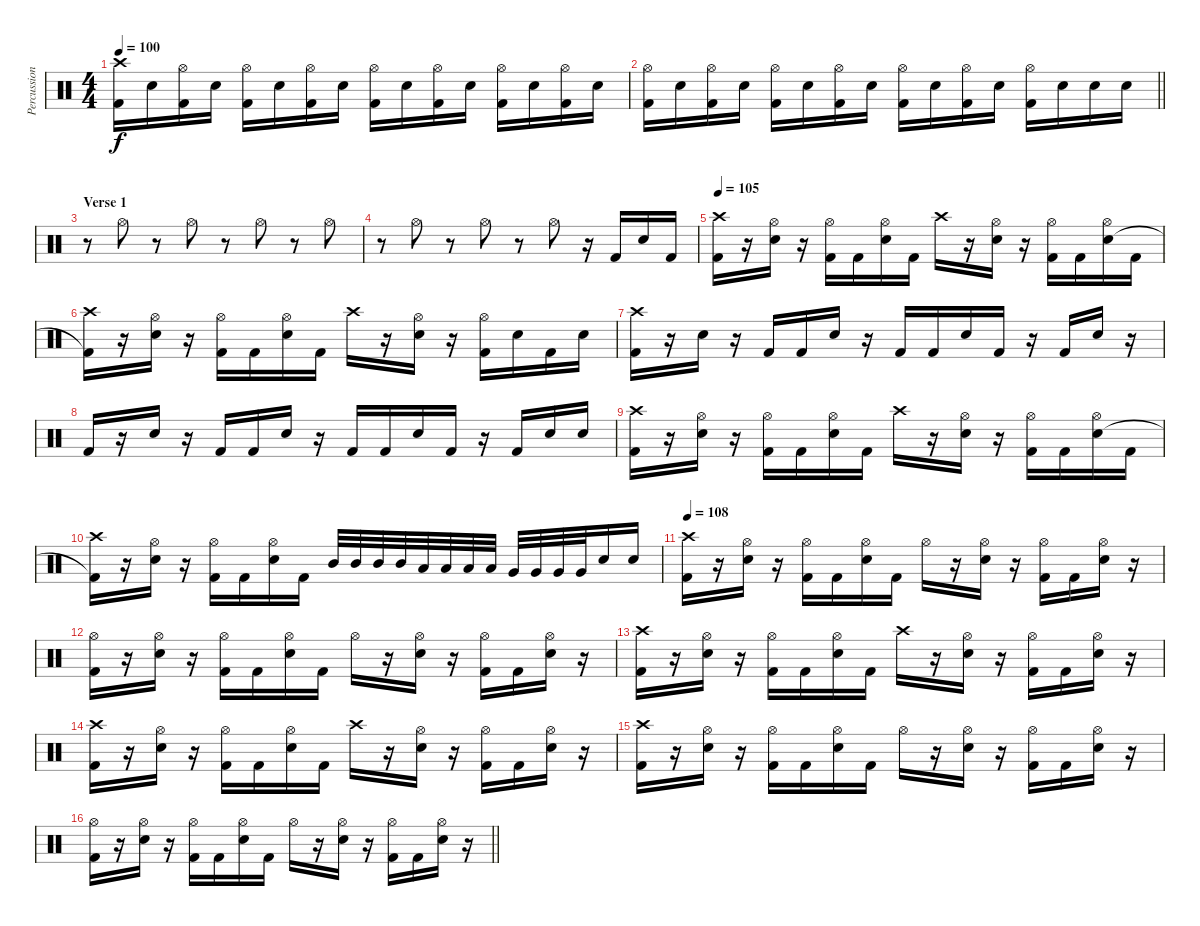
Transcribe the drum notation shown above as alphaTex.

\track ("Percussion" "Percussion") {instrument percussion}
\staff {score}
\articulation defaults
\ts (4 4)
\tempo 100
\clef neutral
\ks c
("Crash high (hit)" "Kick (hit) 2").16{dy f} "Snare (hit) 2".16 ("Hi-Hat (open)" "Kick (hit) 2").16 "Snare (hit) 2".16 ("Hi-Hat (open)" "Kick (hit) 2").16 "Snare (hit) 2".16 ("Hi-Hat (open)" "Kick (hit) 2").16 "Snare (hit) 2".16 ("Hi-Hat (open)" "Kick (hit) 2").16 "Snare (hit) 2".16 ("Hi-Hat (open)" "Kick (hit) 2").16 "Snare (hit) 2".16 ("Hi-Hat (open)" "Kick (hit) 2").16 "Snare (hit) 2".16 ("Hi-Hat (open)" "Kick (hit) 2").16 "Snare (hit) 2".16 |
\barLineRight lightlight
("Hi-Hat (open)" "Kick (hit) 2").16 "Snare (hit) 2".16 ("Hi-Hat (open)" "Kick (hit) 2").16 "Snare (hit) 2".16 ("Hi-Hat (open)" "Kick (hit) 2").16 "Snare (hit) 2".16 ("Hi-Hat (open)" "Kick (hit) 2").16 "Snare (hit) 2".16 ("Hi-Hat (open)" "Kick (hit) 2").16 "Snare (hit) 2".16 ("Hi-Hat (open)" "Kick (hit) 2").16 "Snare (hit) 2".16 ("Hi-Hat (open)" "Kick (hit) 2").16 "Snare (hit) 2".16 "Snare (hit) 2".16 "Snare (hit) 2".16 |
\section ("" "Verse 1")
r.8 "Hi-Hat (open)".8 r.8 "Hi-Hat (open)".8 r.8 "Hi-Hat (open)".8 r.8 "Hi-Hat (open)".8 |
r.8 "Hi-Hat (open)".8 r.8 "Hi-Hat (open)".8 r.8 "Hi-Hat (open)".8 r.16 "Kick (hit) 2".16 "Snare (hit) 2".16 "Kick (hit) 2".16 |
\tempo 105
("Crash high (hit)" "Kick (hit) 2").16 r.16 ("Hi-Hat (open)" "Snare (hit) 2").16 r.16 ("Hi-Hat (open)" "Kick (hit) 2").16 "Kick (hit) 2".16 ("Hi-Hat (open)" "Snare (hit) 2").16 "Kick (hit) 2".16 "Crash high (hit)".16 r.16 ("Hi-Hat (open)" "Snare (hit) 2").16 r.16 ("Hi-Hat (open)" "Kick (hit) 2").16 "Kick (hit) 2".16 ("Hi-Hat (open)" "Snare (hit) 2").16 "Kick (hit) 2".16 |
("Crash high (hit)" "Kick (hit) 2"{t}).16 r.16 ("Hi-Hat (open)" "Snare (hit) 2").16 r.16 ("Hi-Hat (open)" "Kick (hit) 2").16 "Kick (hit) 2".16 ("Hi-Hat (open)" "Snare (hit) 2").16 "Kick (hit) 2".16 "Crash high (hit)".16 r.16 ("Hi-Hat (open)" "Snare (hit) 2").16 r.16 ("Hi-Hat (open)" "Kick (hit) 2").16 "Snare (hit) 2".16 "Kick (hit) 2".16 "Snare (hit) 2".16 |
("Crash high (hit)" "Kick (hit) 2").16 r.16 "Snare (hit) 2".16 r.16 "Kick (hit) 2".16 "Kick (hit) 2".16 "Snare (hit) 2".16 r.16 "Kick (hit) 2".16 "Kick (hit) 2".16 "Snare (hit) 2".16 "Kick (hit) 2".16 r.16 "Kick (hit) 2".16 "Snare (hit) 2".16 r.16 |
"Kick (hit) 2".16 r.16 "Snare (hit) 2".16 r.16 "Kick (hit) 2".16 "Kick (hit) 2".16 "Snare (hit) 2".16 r.16 "Kick (hit) 2".16 "Kick (hit) 2".16 "Snare (hit) 2".16 "Kick (hit) 2".16 r.16 "Kick (hit) 2".16 "Snare (hit) 2".16 "Snare (hit) 2".16 |
("Crash high (hit)" "Kick (hit) 2").16 r.16 ("Hi-Hat (open)" "Snare (hit) 2").16 r.16 ("Hi-Hat (open)" "Kick (hit) 2").16 "Kick (hit) 2".16 ("Hi-Hat (open)" "Snare (hit) 2").16 "Kick (hit) 2".16 "Crash high (hit)".16 r.16 ("Hi-Hat (open)" "Snare (hit) 2").16 r.16 ("Hi-Hat (open)" "Kick (hit) 2").16 "Kick (hit) 2".16 ("Hi-Hat (open)" "Snare (hit) 2").16 "Kick (hit) 2".16 |
("Crash high (hit)" "Kick (hit) 2"{t}).16 r.16 ("Hi-Hat (open)" "Snare (hit) 2").16 r.16 ("Hi-Hat (open)" "Kick (hit) 2").16 "Kick (hit) 2".16 ("Hi-Hat (open)" "Snare (hit) 2").16 "Kick (hit) 2".16 "Mid Tom (hit)".32 "Mid Tom (hit)".32 "Mid Tom (hit)".32 "Mid Tom (hit)".32 "Low Tom (hit)".32 "Low Tom (hit)".32 "Low Tom (hit)".32 "Low Tom (hit)".32 "Very Low Tom (hit)".32 "Very Low Tom (hit)".32 "Very Low Tom (hit)".32 "Very Low Tom (hit)".32 "Snare (hit) 2".16 "Snare (hit) 2".16 |
\tempo 108
("Crash high (hit)" "Kick (hit) 2").16 r.16 ("Hi-Hat (open)" "Snare (hit) 2").16 r.16 ("Hi-Hat (open)" "Kick (hit) 2").16 "Kick (hit) 2".16 ("Hi-Hat (open)" "Snare (hit) 2").16 "Kick (hit) 2".16 "Hi-Hat (open)".16 r.16 ("Hi-Hat (open)" "Snare (hit) 2").16 r.16 ("Hi-Hat (open)" "Kick (hit) 2").16 "Kick (hit) 2".16 ("Hi-Hat (open)" "Snare (hit) 2").16 r.16 |
("Hi-Hat (open)" "Kick (hit) 2").16 r.16 ("Hi-Hat (open)" "Snare (hit) 2").16 r.16 ("Hi-Hat (open)" "Kick (hit) 2").16 "Kick (hit) 2".16 ("Hi-Hat (open)" "Snare (hit) 2").16 "Kick (hit) 2".16 "Hi-Hat (open)".16 r.16 ("Hi-Hat (open)" "Snare (hit) 2").16 r.16 ("Hi-Hat (open)" "Kick (hit) 2").16 "Kick (hit) 2".16 ("Hi-Hat (open)" "Snare (hit) 2").16 r.16 |
("Crash high (hit)" "Kick (hit) 2").16 r.16 ("Hi-Hat (open)" "Snare (hit) 2").16 r.16 ("Hi-Hat (open)" "Kick (hit) 2").16 "Kick (hit) 2".16 ("Hi-Hat (open)" "Snare (hit) 2").16 "Kick (hit) 2".16 "Crash high (hit)".16 r.16 ("Hi-Hat (open)" "Snare (hit) 2").16 r.16 ("Hi-Hat (open)" "Kick (hit) 2").16 "Kick (hit) 2".16 ("Hi-Hat (open)" "Snare (hit) 2").16 r.16 |
("Crash high (hit)" "Kick (hit) 2").16 r.16 ("Hi-Hat (open)" "Snare (hit) 2").16 r.16 ("Hi-Hat (open)" "Kick (hit) 2").16 "Kick (hit) 2".16 ("Hi-Hat (open)" "Snare (hit) 2").16 "Kick (hit) 2".16 "Crash high (hit)".16 r.16 ("Hi-Hat (open)" "Snare (hit) 2").16 r.16 ("Hi-Hat (open)" "Kick (hit) 2").16 "Kick (hit) 2".16 ("Hi-Hat (open)" "Snare (hit) 2").16 r.16 |
("Crash high (hit)" "Kick (hit) 2").16 r.16 ("Hi-Hat (open)" "Snare (hit) 2").16 r.16 ("Hi-Hat (open)" "Kick (hit) 2").16 "Kick (hit) 2".16 ("Hi-Hat (open)" "Snare (hit) 2").16 "Kick (hit) 2".16 "Hi-Hat (open)".16 r.16 ("Hi-Hat (open)" "Snare (hit) 2").16 r.16 ("Hi-Hat (open)" "Kick (hit) 2").16 "Kick (hit) 2".16 ("Hi-Hat (open)" "Snare (hit) 2").16 r.16 |
\barLineRight lightlight
("Hi-Hat (open)" "Kick (hit) 2").16 r.16 ("Hi-Hat (open)" "Snare (hit) 2").16 r.16 ("Hi-Hat (open)" "Kick (hit) 2").16 "Kick (hit) 2".16 ("Hi-Hat (open)" "Snare (hit) 2").16 "Kick (hit) 2".16 "Hi-Hat (open)".16 r.16 ("Hi-Hat (open)" "Snare (hit) 2").16 r.16 ("Hi-Hat (open)" "Kick (hit) 2").16 "Kick (hit) 2".16 ("Hi-Hat (open)" "Snare (hit) 2").16 r.16
